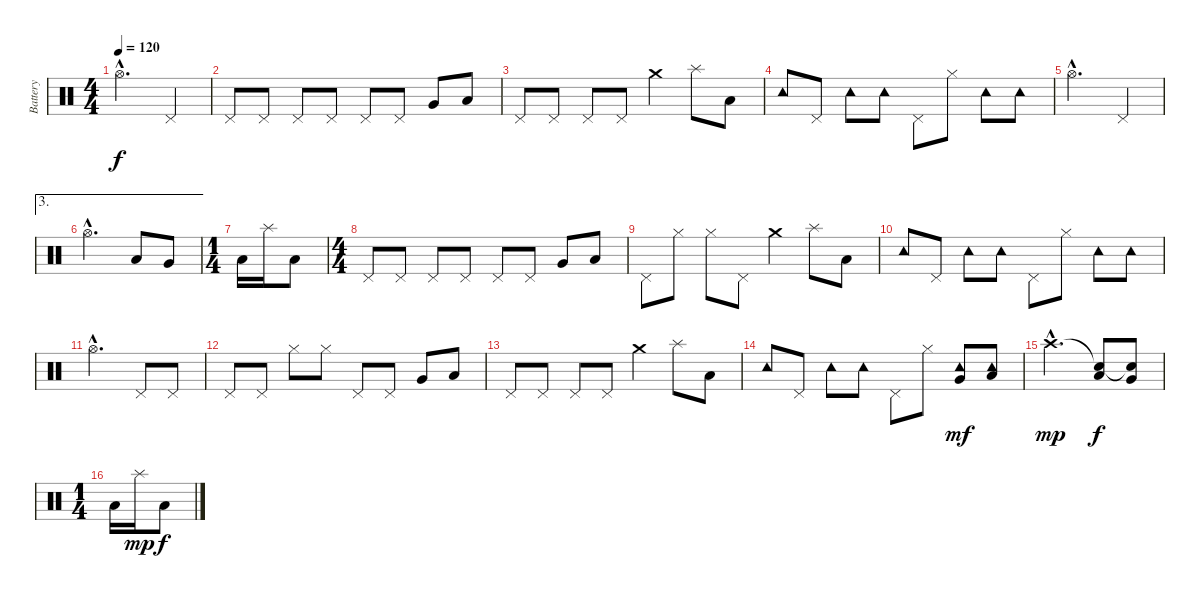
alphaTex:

\track ("Battery" "Battery") {instrument percussion}
\staff {score}
\articulation defaults
\ts (4 4)
\tempo 120
\clef neutral
\ks c "Hi-Hat (open)"{hac}.2{d dy f} "Pedal Hi-Hat (hit)".4
|
"Pedal Hi-Hat (hit)".8 "Pedal Hi-Hat (hit)".8 "Pedal Hi-Hat (hit)".8 "Pedal Hi-Hat (hit)".8 "Pedal Hi-Hat (hit)".8 "Pedal Hi-Hat (hit)".8 "Very Low Tom (hit)".8 "Low Floor Tom (hit)".8 |
"Pedal Hi-Hat (hit)".8 "Pedal Hi-Hat (hit)".8 "Pedal Hi-Hat (hit)".8 "Pedal Hi-Hat (hit)".8 "Crash medium (hit)".4 "Splash (hit)".8 "Low Floor Tom (hit)".8 |
"Tambourine (hit)".8 "Pedal Hi-Hat (hit)".8 "Tambourine (hit)".8 "Tambourine (hit)".8 "Pedal Hi-Hat (hit)".8 "Hi-Hat (closed)".8 "Tambourine (hit)".8 "Tambourine (hit)".8 |
"Hi-Hat (open)"{hac}.2{d} "Pedal Hi-Hat (hit)".4 |
\ae 3 "Hi-Hat (open)"{hac}.2{d} "Low Floor Tom (hit)".8 "Very Low Tom (hit)".8
|
\ts (1 4)
"Low Floor Tom (hit)".16 "Splash (hit)".16 "Low Floor Tom (hit)".8 |
\ts (4 4)
"Pedal Hi-Hat (hit)".8 "Pedal Hi-Hat (hit)".8 "Pedal Hi-Hat (hit)".8 "Pedal Hi-Hat (hit)".8 "Pedal Hi-Hat (hit)".8 "Pedal Hi-Hat (hit)".8 "Very Low Tom (hit)".8 "Low Floor Tom (hit)".8 |
"Pedal Hi-Hat (hit)".8 "Hi-Hat (closed)".8 "Hi-Hat (closed)".8 "Pedal Hi-Hat (hit)".8 "Crash medium (hit)".4 "Splash (hit)".8 "Low Floor Tom (hit)".8 |
"Tambourine (hit)".8 "Pedal Hi-Hat (hit)".8 "Tambourine (hit)".8 "Tambourine (hit)".8 "Pedal Hi-Hat (hit)".8 "Hi-Hat (closed)".8 "Tambourine (hit)".8 "Tambourine (hit)".8 |
"Hi-Hat (open)"{hac}.2{d} "Pedal Hi-Hat (hit)".8 "Pedal Hi-Hat (hit)".8 |
"Pedal Hi-Hat (hit)".8 "Pedal Hi-Hat (hit)".8 "Hi-Hat (closed)".8 "Hi-Hat (closed)".8 "Pedal Hi-Hat (hit)".8 "Pedal Hi-Hat (hit)".8 "Very Low Tom (hit)".8 "Low Floor Tom (hit)".8 |
"Pedal Hi-Hat (hit)".8 "Pedal Hi-Hat (hit)".8 "Pedal Hi-Hat (hit)".8 "Pedal Hi-Hat (hit)".8 "Crash medium (hit)".4 "Splash (hit)".8 "Low Floor Tom (hit)".8 |
"Tambourine (hit)".8 "Pedal Hi-Hat (hit)".8 "Tambourine (hit)".8 "Tambourine (hit)".8 "Pedal Hi-Hat (hit)".8 "Hi-Hat (closed)".8 ("Very Low Tom (hit)" "Tambourine (hit)").8{dy mf} ("Low Floor Tom (hit)" "Tambourine (hit)").8 |
"Crash high (hit)"{hac}.2{d dy mp} ("Snare (hit)"{t} "Low Tom (hit)").8{dy f} ("Snare (hit)"{t} "Very Low Tom (hit)").8 |
\ts (1 4)
"Low Floor Tom (hit)".16 "Splash (hit)".16{dy mp} "Low Floor Tom (hit)".8{dy f}
